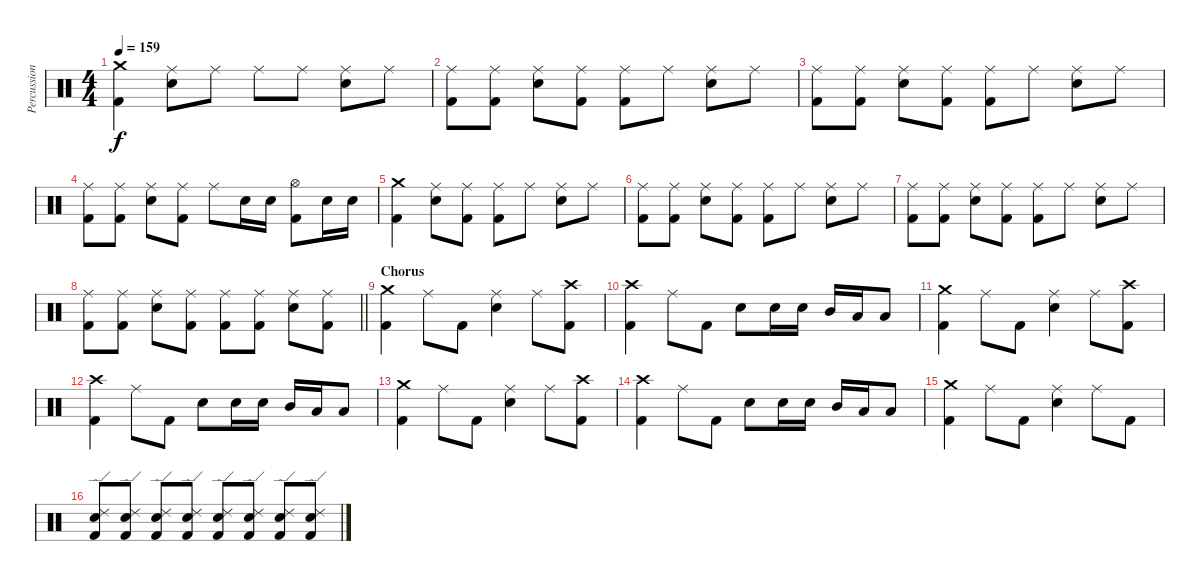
\track ("Percussion" "Percussion") {instrument percussion}
\staff {score}
\articulation defaults
\ts (4 4)
\tempo 159
\clef neutral
\ks c
("Crash medium (hit)" "Kick (hit) 2").4{dy f} ("Ride (middle)" "Electric Snare (hit)").8 "Ride (middle)".8 "Ride (middle)".8 "Ride (middle)".8 ("Ride (middle)" "Electric Snare (hit)").8 "Ride (middle)".8 |
("Ride (middle)" "Kick (hit) 2").8 ("Ride (middle)" "Kick (hit) 2").8 ("Ride (middle)" "Electric Snare (hit)").8 ("Ride (middle)" "Kick (hit) 2").8 ("Ride (middle)" "Kick (hit) 2").8 "Ride (middle)".8 ("Ride (middle)" "Electric Snare (hit)").8 "Ride (middle)".8 |
("Ride (middle)" "Kick (hit) 2").8 ("Ride (middle)" "Kick (hit) 2").8 ("Ride (middle)" "Electric Snare (hit)").8 ("Ride (middle)" "Kick (hit) 2").8 ("Ride (middle)" "Kick (hit) 2").8 "Ride (middle)".8 ("Ride (middle)" "Electric Snare (hit)").8 "Ride (middle)".8 |
("Ride (middle)" "Kick (hit) 2").8 ("Ride (middle)" "Kick (hit) 2").8 ("Ride (middle)" "Electric Snare (hit)").8 ("Ride (middle)" "Kick (hit) 2").8 "Ride (middle)".8 "Electric Snare (hit)".16 "Electric Snare (hit)".16 ("Hi-Hat (open)" "Kick (hit) 2").8 "Electric Snare (hit)".16 "Electric Snare (hit)".16 |
("Crash medium (hit)" "Kick (hit) 2").4 ("Ride (middle)" "Electric Snare (hit)").8 ("Ride (middle)" "Kick (hit) 2").8 ("Ride (middle)" "Kick (hit) 2").8 "Ride (middle)".8 ("Ride (middle)" "Electric Snare (hit)").8 "Ride (middle)".8 |
("Ride (middle)" "Kick (hit) 2").8 ("Ride (middle)" "Kick (hit) 2").8 ("Ride (middle)" "Electric Snare (hit)").8 ("Ride (middle)" "Kick (hit) 2").8 ("Ride (middle)" "Kick (hit) 2").8 "Ride (middle)".8 ("Ride (middle)" "Electric Snare (hit)").8 "Ride (middle)".8 |
("Ride (middle)" "Kick (hit) 2").8 ("Ride (middle)" "Kick (hit) 2").8 ("Ride (middle)" "Electric Snare (hit)").8 ("Ride (middle)" "Kick (hit) 2").8 ("Ride (middle)" "Kick (hit) 2").8 "Ride (middle)".8 ("Ride (middle)" "Electric Snare (hit)").8 "Ride (middle)".8 |
\barLineRight lightlight
("Ride (middle)" "Kick (hit) 2").8 ("Ride (middle)" "Kick (hit) 2").8 ("Ride (middle)" "Electric Snare (hit)").8 ("Ride (middle)" "Kick (hit) 2").8 ("Ride (middle)" "Kick (hit) 2").8 ("Ride (middle)" "Kick (hit) 2").8 ("Ride (middle)" "Electric Snare (hit)").8 ("Ride (middle)" "Kick (hit) 2").8 |
\section ("" "Chorus")
("Crash medium (hit)" "Kick (hit) 2").4 "Ride (middle)".8 "Kick (hit) 2".8 ("Ride (middle)" "Electric Snare (hit)").4 "Ride (middle)".8 ("Crash high (hit)" "Kick (hit) 2").8 |
("Crash high (hit)" "Kick (hit) 2").4 "Ride (middle)".8 "Kick (hit) 2".8 "Electric Snare (hit)".8 "Electric Snare (hit)".16 "Electric Snare (hit)".16 "Mid Tom (hit)".16 "Low Tom (hit)".16 "Low Tom (hit)".8 |
("Crash medium (hit)" "Kick (hit) 2").4 "Ride (middle)".8 "Kick (hit) 2".8 ("Ride (middle)" "Electric Snare (hit)").4 "Ride (middle)".8 ("Crash high (hit)" "Kick (hit) 2").8 |
("Crash high (hit)" "Kick (hit) 2").4 "Ride (middle)".8 "Kick (hit) 2".8 "Electric Snare (hit)".8 "Electric Snare (hit)".16 "Electric Snare (hit)".16 "Mid Tom (hit)".16 "Low Tom (hit)".16 "Low Tom (hit)".8 |
("Crash medium (hit)" "Kick (hit) 2").4 "Ride (middle)".8 "Kick (hit) 2".8 ("Ride (middle)" "Electric Snare (hit)").4 "Ride (middle)".8 ("Crash high (hit)" "Kick (hit) 2").8 |
("Crash high (hit)" "Kick (hit) 2").4 "Ride (middle)".8 "Kick (hit) 2".8 "Electric Snare (hit)".8 "Electric Snare (hit)".16 "Electric Snare (hit)".16 "Mid Tom (hit)".16 "Low Tom (hit)".16 "Low Tom (hit)".8 |
("Crash medium (hit)" "Kick (hit) 2").4 "Ride (middle)".8 "Kick (hit) 2".8 ("Ride (middle)" "Electric Snare (hit)").4 "Ride (middle)".8 "Kick (hit) 2".8 |
("Ride (edge) 2" "Electric Snare (hit)" "Kick (hit) 2").8 ("Ride (edge) 2" "Electric Snare (hit)" "Kick (hit) 2").8 ("Ride (edge) 2" "Electric Snare (hit)" "Kick (hit) 2").8 ("Ride (edge) 2" "Electric Snare (hit)" "Kick (hit) 2").8 ("Ride (edge) 2" "Electric Snare (hit)" "Kick (hit) 2").8 ("Ride (edge) 2" "Electric Snare (hit)" "Kick (hit) 2").8 ("Ride (edge) 2" "Electric Snare (hit)" "Kick (hit) 2").8 ("Ride (edge) 2" "Electric Snare (hit)" "Kick (hit) 2").8
